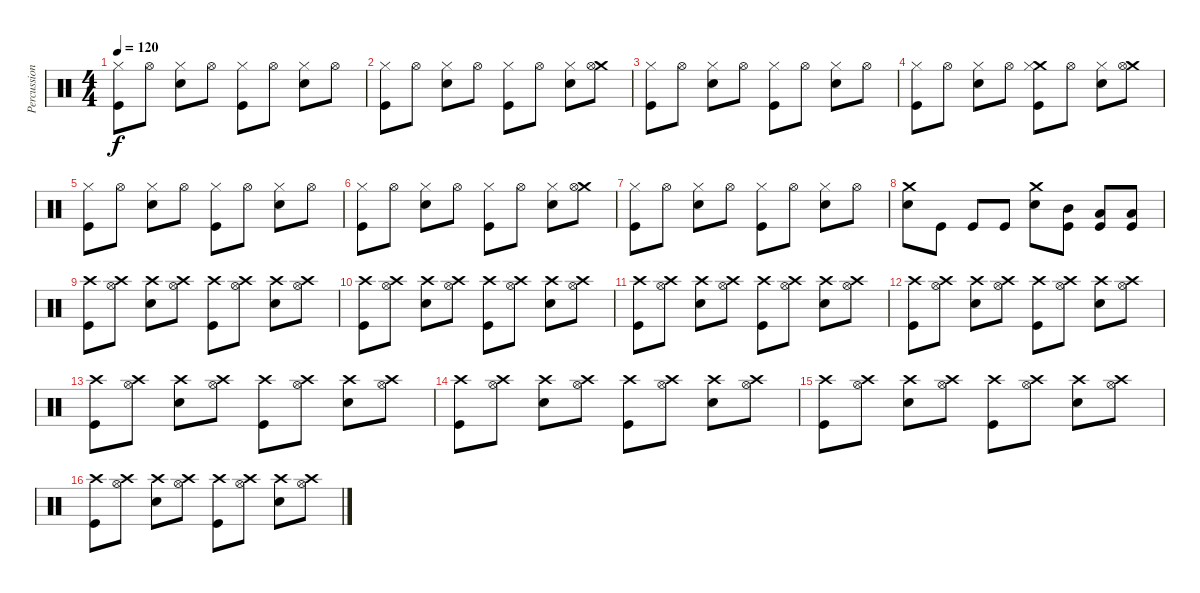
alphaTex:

\track ("Percussion" "Percussion") {instrument percussion}
\staff {score}
\articulation defaults
\ts (4 4)
\tempo 120
\clef neutral
\ks c
("Hi-Hat (closed)" "Kick (hit)").8{dy f} "Hi-Hat (open)".8 ("Snare (hit) 2" "Hi-Hat (closed)").8 "Hi-Hat (open)".8 ("Hi-Hat (closed)" "Kick (hit)").8 "Hi-Hat (open)".8 ("Snare (hit) 2" "Hi-Hat (closed)").8 "Hi-Hat (open)".8 |
("Hi-Hat (closed)" "Kick (hit)").8 "Hi-Hat (open)".8 ("Snare (hit) 2" "Hi-Hat (closed)").8 "Hi-Hat (open)".8 ("Hi-Hat (closed)" "Kick (hit)").8 "Hi-Hat (open)".8 ("Snare (hit) 2" "Hi-Hat (closed)").8 ("Crash medium (hit)" "Hi-Hat (open)").8 |
("Hi-Hat (closed)" "Kick (hit)").8 "Hi-Hat (open)".8 ("Snare (hit) 2" "Hi-Hat (closed)").8 "Hi-Hat (open)".8 ("Hi-Hat (closed)" "Kick (hit)").8 "Hi-Hat (open)".8 ("Snare (hit) 2" "Hi-Hat (closed)").8 "Hi-Hat (open)".8 |
("Hi-Hat (closed)" "Kick (hit)").8 "Hi-Hat (open)".8 ("Snare (hit) 2" "Hi-Hat (closed)").8 "Hi-Hat (open)".8 ("Crash medium (hit)" "Hi-Hat (closed)" "Kick (hit)").8 "Hi-Hat (open)".8 ("Snare (hit) 2" "Hi-Hat (closed)").8 ("Crash medium (hit)" "Hi-Hat (open)").8 |
("Hi-Hat (closed)" "Kick (hit)").8 "Hi-Hat (open)".8 ("Snare (hit) 2" "Hi-Hat (closed)").8 "Hi-Hat (open)".8 ("Hi-Hat (closed)" "Kick (hit)").8 "Hi-Hat (open)".8 ("Snare (hit) 2" "Hi-Hat (closed)").8 "Hi-Hat (open)".8 |
("Hi-Hat (closed)" "Kick (hit)").8 "Hi-Hat (open)".8 ("Snare (hit) 2" "Hi-Hat (closed)").8 "Hi-Hat (open)".8 ("Hi-Hat (closed)" "Kick (hit)").8 "Hi-Hat (open)".8 ("Snare (hit) 2" "Hi-Hat (closed)").8 ("Crash medium (hit)" "Hi-Hat (open)").8 |
("Hi-Hat (closed)" "Kick (hit)").8 "Hi-Hat (open)".8 ("Snare (hit) 2" "Hi-Hat (closed)").8 "Hi-Hat (open)".8 ("Hi-Hat (closed)" "Kick (hit)").8 "Hi-Hat (open)".8 ("Snare (hit) 2" "Hi-Hat (closed)").8 "Hi-Hat (open)".8 |
("Crash medium (hit)" "Snare (hit) 2").8 "Kick (hit)".8 "Kick (hit)".8 "Kick (hit)".8 ("Crash medium (hit)" "Snare (hit) 2").8 ("Mid Tom (hit)" "Kick (hit)").8 ("Low Tom (hit)" "Kick (hit)").8 ("Low Tom (hit)" "Kick (hit)").8 |
("Crash high (hit)" "Kick (hit)").8 ("Crash high (hit)" "Hi-Hat (open)").8 ("Crash high (hit)" "Snare (hit) 2").8 ("Crash high (hit)" "Hi-Hat (open)").8 ("Crash high (hit)" "Kick (hit)").8 ("Crash high (hit)" "Hi-Hat (open)").8 ("Crash high (hit)" "Snare (hit) 2").8 ("Crash high (hit)" "Hi-Hat (open)").8 |
("Crash high (hit)" "Kick (hit)").8 ("Crash high (hit)" "Hi-Hat (open)").8 ("Crash high (hit)" "Snare (hit) 2").8 ("Crash high (hit)" "Hi-Hat (open)").8 ("Crash high (hit)" "Kick (hit)").8 ("Crash high (hit)" "Hi-Hat (open)").8 ("Crash high (hit)" "Snare (hit) 2").8 ("Crash high (hit)" "Hi-Hat (open)").8 |
("Crash high (hit)" "Kick (hit)").8 ("Crash high (hit)" "Hi-Hat (open)").8 ("Crash high (hit)" "Snare (hit) 2").8 ("Crash high (hit)" "Hi-Hat (open)").8 ("Crash high (hit)" "Kick (hit)").8 ("Crash high (hit)" "Hi-Hat (open)").8 ("Crash high (hit)" "Snare (hit) 2").8 ("Crash high (hit)" "Hi-Hat (open)").8 |
("Crash high (hit)" "Kick (hit)").8 ("Crash high (hit)" "Hi-Hat (open)").8 ("Crash high (hit)" "Snare (hit) 2").8 ("Crash high (hit)" "Hi-Hat (open)").8 ("Crash high (hit)" "Kick (hit)").8 ("Crash high (hit)" "Hi-Hat (open)").8 ("Crash high (hit)" "Snare (hit) 2").8 ("Crash high (hit)" "Hi-Hat (open)").8 |
("Crash high (hit)" "Kick (hit)").8 ("Crash high (hit)" "Hi-Hat (open)").8 ("Crash high (hit)" "Snare (hit) 2").8 ("Crash high (hit)" "Hi-Hat (open)").8 ("Crash high (hit)" "Kick (hit)").8 ("Crash high (hit)" "Hi-Hat (open)").8 ("Crash high (hit)" "Snare (hit) 2").8 ("Crash high (hit)" "Hi-Hat (open)").8 |
("Crash high (hit)" "Kick (hit)").8 ("Crash high (hit)" "Hi-Hat (open)").8 ("Crash high (hit)" "Snare (hit) 2").8 ("Crash high (hit)" "Hi-Hat (open)").8 ("Crash high (hit)" "Kick (hit)").8 ("Crash high (hit)" "Hi-Hat (open)").8 ("Crash high (hit)" "Snare (hit) 2").8 ("Crash high (hit)" "Hi-Hat (open)").8 |
("Crash high (hit)" "Kick (hit)").8 ("Crash high (hit)" "Hi-Hat (open)").8 ("Crash high (hit)" "Snare (hit) 2").8 ("Crash high (hit)" "Hi-Hat (open)").8 ("Crash high (hit)" "Kick (hit)").8 ("Crash high (hit)" "Hi-Hat (open)").8 ("Crash high (hit)" "Snare (hit) 2").8 ("Crash high (hit)" "Hi-Hat (open)").8 |
("Crash high (hit)" "Kick (hit)").8 ("Crash high (hit)" "Hi-Hat (open)").8 ("Crash high (hit)" "Snare (hit) 2").8 ("Crash high (hit)" "Hi-Hat (open)").8 ("Crash high (hit)" "Kick (hit)").8 ("Crash high (hit)" "Hi-Hat (open)").8 ("Crash high (hit)" "Snare (hit) 2").8 ("Crash high (hit)" "Hi-Hat (open)").8
